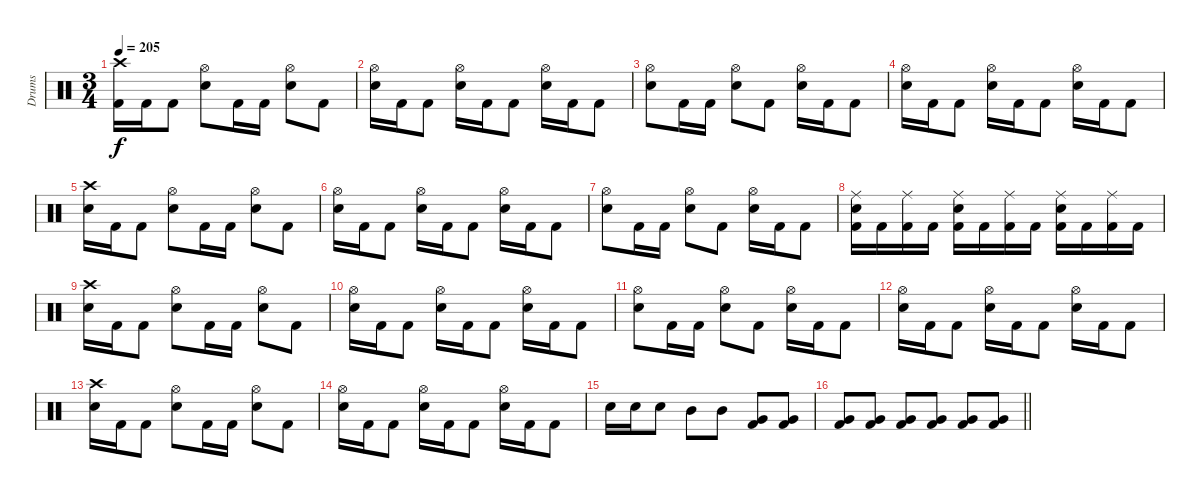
\track ("Drums" "Drums") {instrument percussion}
\staff {score}
\articulation defaults
\ts (3 4)
\tempo 205
\clef neutral
\ks c
("Crash high (hit)" "Kick (hit) 2").16{dy f} "Kick (hit) 2".16 "Kick (hit) 2".8 ("Hi-Hat (open)" "Snare (hit) 2").8 "Kick (hit) 2".16 "Kick (hit) 2".16 ("Hi-Hat (open)" "Snare (hit) 2").8 "Kick (hit) 2".8 |
("Hi-Hat (open)" "Snare (hit) 2").16 "Kick (hit) 2".16 "Kick (hit) 2".8 ("Hi-Hat (open)" "Snare (hit) 2").16 "Kick (hit) 2".16 "Kick (hit) 2".8 ("Hi-Hat (open)" "Snare (hit) 2").16 "Kick (hit) 2".16 "Kick (hit) 2".8 |
("Hi-Hat (open)" "Snare (hit) 2").8 "Kick (hit) 2".16 "Kick (hit) 2".16 ("Hi-Hat (open)" "Snare (hit) 2").8 "Kick (hit) 2".8 ("Hi-Hat (open)" "Snare (hit) 2").16 "Kick (hit) 2".16 "Kick (hit) 2".8 |
("Hi-Hat (open)" "Snare (hit) 2").16 "Kick (hit) 2".16 "Kick (hit) 2".8 ("Hi-Hat (open)" "Snare (hit) 2").16 "Kick (hit) 2".16 "Kick (hit) 2".8 ("Hi-Hat (open)" "Snare (hit) 2").16 "Kick (hit) 2".16 "Kick (hit) 2".8 |
("Crash high (hit)" "Snare (hit) 2").16 "Kick (hit) 2".16 "Kick (hit) 2".8 ("Hi-Hat (open)" "Snare (hit) 2").8 "Kick (hit) 2".16 "Kick (hit) 2".16 ("Hi-Hat (open)" "Snare (hit) 2").8 "Kick (hit) 2".8 |
("Hi-Hat (open)" "Snare (hit) 2").16 "Kick (hit) 2".16 "Kick (hit) 2".8 ("Hi-Hat (open)" "Snare (hit) 2").16 "Kick (hit) 2".16 "Kick (hit) 2".8 ("Hi-Hat (open)" "Snare (hit) 2").16 "Kick (hit) 2".16 "Kick (hit) 2".8 |
("Hi-Hat (open)" "Snare (hit) 2").8 "Kick (hit) 2".16 "Kick (hit) 2".16 ("Hi-Hat (open)" "Snare (hit) 2").8 "Kick (hit) 2".8 ("Hi-Hat (open)" "Snare (hit) 2").16 "Kick (hit) 2".16 "Kick (hit) 2".8 |
("Ride (middle)" "Snare (hit) 2" "Kick (hit) 2").16 "Kick (hit) 2".16 ("Ride (middle)" "Kick (hit) 2").16 "Kick (hit) 2".16 ("Ride (middle)" "Snare (hit) 2" "Kick (hit) 2").16 "Kick (hit) 2".16 ("Ride (middle)" "Kick (hit) 2").16 "Kick (hit) 2".16 ("Ride (middle)" "Snare (hit) 2" "Kick (hit) 2").16 "Kick (hit) 2".16 ("Ride (middle)" "Kick (hit) 2").16 "Kick (hit) 2".16 |
("Crash high (hit)" "Snare (hit) 2").16 "Kick (hit) 2".16 "Kick (hit) 2".8 ("Hi-Hat (open)" "Snare (hit) 2").8 "Kick (hit) 2".16 "Kick (hit) 2".16 ("Hi-Hat (open)" "Snare (hit) 2").8 "Kick (hit) 2".8 |
("Hi-Hat (open)" "Snare (hit) 2").16 "Kick (hit) 2".16 "Kick (hit) 2".8 ("Hi-Hat (open)" "Snare (hit) 2").16 "Kick (hit) 2".16 "Kick (hit) 2".8 ("Hi-Hat (open)" "Snare (hit) 2").16 "Kick (hit) 2".16 "Kick (hit) 2".8 |
("Hi-Hat (open)" "Snare (hit) 2").8 "Kick (hit) 2".16 "Kick (hit) 2".16 ("Hi-Hat (open)" "Snare (hit) 2").8 "Kick (hit) 2".8 ("Hi-Hat (open)" "Snare (hit) 2").16 "Kick (hit) 2".16 "Kick (hit) 2".8 |
("Hi-Hat (open)" "Snare (hit) 2").16 "Kick (hit) 2".16 "Kick (hit) 2".8 ("Hi-Hat (open)" "Snare (hit) 2").16 "Kick (hit) 2".16 "Kick (hit) 2".8 ("Hi-Hat (open)" "Snare (hit) 2").16 "Kick (hit) 2".16 "Kick (hit) 2".8 |
("Crash high (hit)" "Snare (hit) 2").16 "Kick (hit) 2".16 "Kick (hit) 2".8 ("Hi-Hat (open)" "Snare (hit) 2").8 "Kick (hit) 2".16 "Kick (hit) 2".16 ("Hi-Hat (open)" "Snare (hit) 2").8 "Kick (hit) 2".8 |
("Hi-Hat (open)" "Snare (hit) 2").16 "Kick (hit) 2".16 "Kick (hit) 2".8 ("Hi-Hat (open)" "Snare (hit) 2").16 "Kick (hit) 2".16 "Kick (hit) 2".8 ("Hi-Hat (open)" "Snare (hit) 2").16 "Kick (hit) 2".16 "Kick (hit) 2".8 |
"Snare (hit) 2".16 "Snare (hit) 2".16 "Snare (hit) 2".8 "Mid Tom (hit)".8 "Mid Tom (hit)".8 ("Very Low Tom (hit)" "Kick (hit) 2").8 ("Very Low Tom (hit)" "Kick (hit) 2").8 |
\barLineRight lightlight
("Very Low Tom (hit)" "Kick (hit) 2").8 ("Very Low Tom (hit)" "Kick (hit) 2").8 ("Very Low Tom (hit)" "Kick (hit) 2").8 ("Very Low Tom (hit)" "Kick (hit) 2").8 ("Very Low Tom (hit)" "Kick (hit) 2").8 ("Very Low Tom (hit)" "Kick (hit) 2").8
